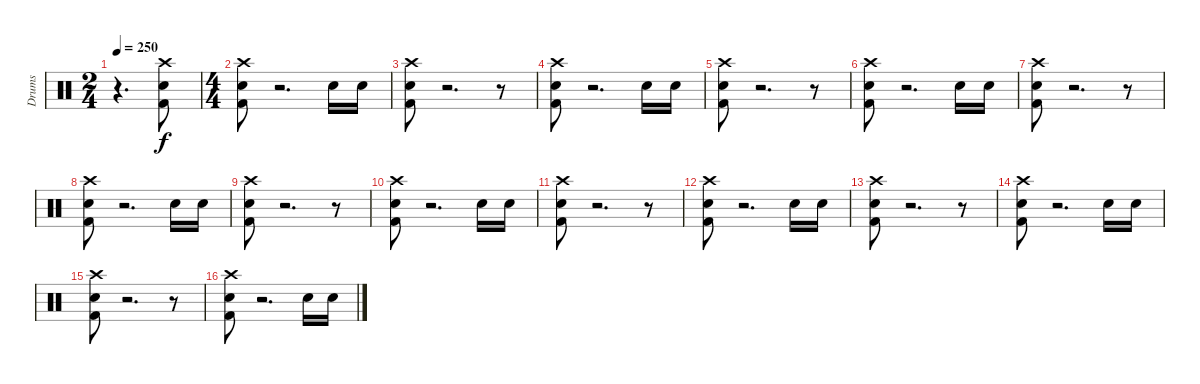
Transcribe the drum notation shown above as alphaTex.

\track ("Drums" "Drums") {instrument percussion}
\staff {score}
\articulation defaults
\ts (2 4)
\tempo 250
\tempo 160
\tempo 250
\clef neutral
\ks c
r.4{d dy f} ("Kick (hit) 2" "Snare (hit) 2" "Crash high (hit)").8 |
\ts (4 4)
("Kick (hit) 2" "Snare (hit) 2" "Crash high (hit)").8 r.2{d} "Snare (hit) 2".16 "Snare (hit) 2".16 |
("Kick (hit) 2" "Snare (hit) 2" "Crash high (hit)").8 r.2{d} r.8 |
("Kick (hit) 2" "Snare (hit) 2" "Crash high (hit)").8 r.2{d} "Snare (hit) 2".16 "Snare (hit) 2".16 |
("Kick (hit) 2" "Snare (hit) 2" "Crash high (hit)").8 r.2{d} r.8 |
("Kick (hit) 2" "Snare (hit) 2" "Crash high (hit)").8 r.2{d} "Snare (hit) 2".16 "Snare (hit) 2".16 |
("Kick (hit) 2" "Snare (hit) 2" "Crash high (hit)").8 r.2{d} r.8 |
("Kick (hit) 2" "Snare (hit) 2" "Crash high (hit)").8 r.2{d} "Snare (hit) 2".16 "Snare (hit) 2".16 |
("Kick (hit) 2" "Snare (hit) 2" "Crash high (hit)").8 r.2{d} r.8 |
("Kick (hit) 2" "Snare (hit) 2" "Crash high (hit)").8 r.2{d} "Snare (hit) 2".16 "Snare (hit) 2".16 |
("Kick (hit) 2" "Snare (hit) 2" "Crash high (hit)").8 r.2{d} r.8 |
("Kick (hit) 2" "Snare (hit) 2" "Crash high (hit)").8 r.2{d} "Snare (hit) 2".16 "Snare (hit) 2".16 |
("Kick (hit) 2" "Snare (hit) 2" "Crash high (hit)").8 r.2{d} r.8 |
("Kick (hit) 2" "Snare (hit) 2" "Crash high (hit)").8 r.2{d} "Snare (hit) 2".16 "Snare (hit) 2".16 |
("Kick (hit) 2" "Snare (hit) 2" "Crash high (hit)").8 r.2{d} r.8 |
("Kick (hit) 2" "Snare (hit) 2" "Crash high (hit)").8 r.2{d} "Snare (hit) 2".16 "Snare (hit) 2".16
